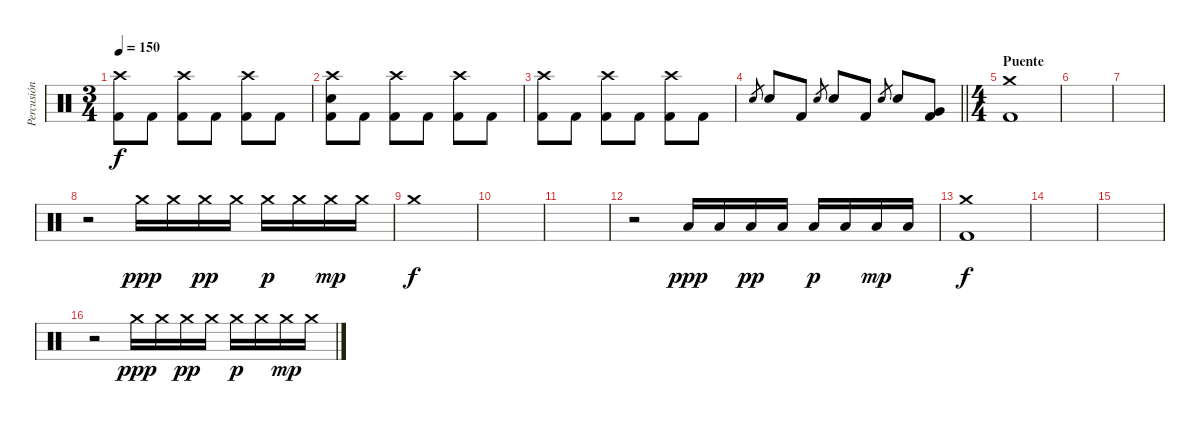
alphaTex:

\track ("Percusión" "Percusión") {instrument percussion}
\staff {score}
\articulation defaults
\ts (3 4)
\tempo 150
\clef neutral
\ks c
("Crash high (hit)" "Kick (hit) 2").8{dy f} "Kick (hit) 2".8 ("Crash high (hit)" "Kick (hit) 2").8 "Kick (hit) 2".8 ("Crash high (hit)" "Kick (hit) 2").8 "Kick (hit) 2".8 |
("Crash high (hit)" "Electric Snare (hit)" "Kick (hit) 2").8 "Kick (hit) 2".8 ("Crash high (hit)" "Kick (hit) 2").8 "Kick (hit) 2".8 ("Crash high (hit)" "Kick (hit) 2").8 "Kick (hit) 2".8 |
("Crash high (hit)" "Kick (hit) 2").8 "Kick (hit) 2".8 ("Crash high (hit)" "Kick (hit) 2").8 "Kick (hit) 2".8 ("Crash high (hit)" "Kick (hit) 2").8 "Kick (hit) 2".8 |
\barLineRight lightlight "Electric Snare (hit)".8{gr} "Electric Snare (hit)".8 "Kick (hit) 2".8 "Electric Snare (hit)".8{gr} "Electric Snare (hit)".8 "Kick (hit) 2".8 "Electric Snare (hit)".8{gr} "Electric Snare (hit)".8
("Very Low Tom (hit)" "Kick (hit) 2").8 |
\ts (4 4)
\section ("" "Puente")
("Crash medium (hit)" "Kick (hit) 2").1 |
|
|
r.2 "Crash medium (hit)".16{dy ppp} "Crash medium (hit)".16 "Crash medium (hit)".16{dy pp} "Crash medium (hit)".16 "Crash medium (hit)".16{dy p} "Crash medium (hit)".16 "Crash medium (hit)".16{dy mp} "Crash medium (hit)".16 |
"Crash medium (hit)".1{dy f} |
|
|
r.2 "Low Floor Tom (hit)".16{dy ppp} "Low Floor Tom (hit)".16 "Low Floor Tom (hit)".16{dy pp} "Low Floor Tom (hit)".16 "Low Floor Tom (hit)".16{dy p} "Low Floor Tom (hit)".16 "Low Floor Tom (hit)".16{dy mp} "Low Floor Tom (hit)".16 |
("Crash medium (hit)" "Kick (hit) 2").1{dy f} |
|
|
r.2 "Crash medium (hit)".16{dy ppp} "Crash medium (hit)".16 "Crash medium (hit)".16{dy pp} "Crash medium (hit)".16 "Crash medium (hit)".16{dy p} "Crash medium (hit)".16 "Crash medium (hit)".16{dy mp} "Crash medium (hit)".16
